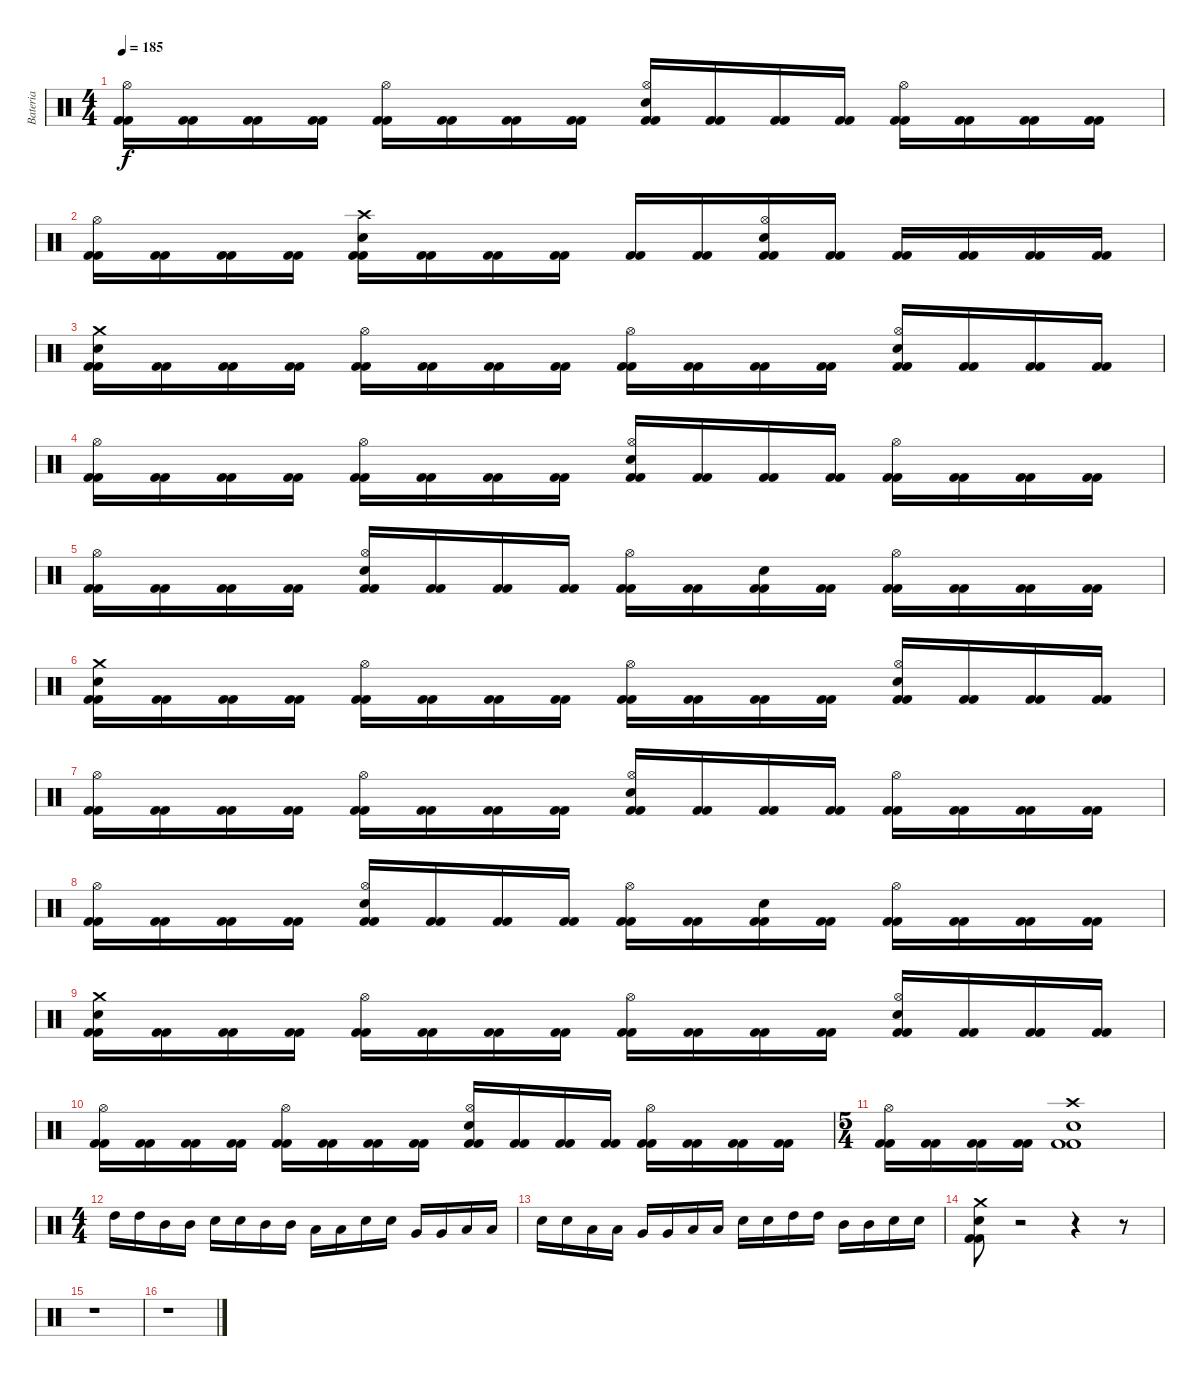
\track ("Bateria" "Bateria") {instrument percussion}
\staff {score}
\articulation defaults
\ts (4 4)
\tempo 185
\clef neutral
\ks c
("Kick (hit) 2" "Kick (hit) 2" "Hi-Hat (open)").16{dy f} ("Kick (hit) 2" "Kick (hit) 2").16 ("Kick (hit) 2" "Kick (hit) 2").16 ("Kick (hit) 2" "Kick (hit) 2").16 ("Kick (hit) 2" "Kick (hit) 2" "Hi-Hat (open)").16 ("Kick (hit) 2" "Kick (hit) 2").16 ("Kick (hit) 2" "Kick (hit) 2").16 ("Kick (hit) 2" "Kick (hit) 2").16 ("Kick (hit) 2" "Kick (hit) 2" "Electric Snare (hit)" "Hi-Hat (open)").16 ("Kick (hit) 2" "Kick (hit) 2").16 ("Kick (hit) 2" "Kick (hit) 2").16 ("Kick (hit) 2" "Kick (hit) 2").16 ("Kick (hit) 2" "Kick (hit) 2" "Hi-Hat (open)").16 ("Kick (hit) 2" "Kick (hit) 2").16 ("Kick (hit) 2" "Kick (hit) 2").16 ("Kick (hit) 2" "Kick (hit) 2").16 |
("Kick (hit) 2" "Kick (hit) 2" "Hi-Hat (open)").16 ("Kick (hit) 2" "Kick (hit) 2").16 ("Kick (hit) 2" "Kick (hit) 2").16 ("Kick (hit) 2" "Kick (hit) 2").16 ("Kick (hit) 2" "Kick (hit) 2" "Electric Snare (hit)" "Crash high (hit)").16 ("Kick (hit) 2" "Kick (hit) 2").16 ("Kick (hit) 2" "Kick (hit) 2").16 ("Kick (hit) 2" "Kick (hit) 2").16 ("Kick (hit) 2" "Kick (hit) 2").16 ("Kick (hit) 2" "Kick (hit) 2").16 ("Kick (hit) 2" "Kick (hit) 2" "Electric Snare (hit)" "Hi-Hat (open)").16 ("Kick (hit) 2" "Kick (hit) 2").16 ("Kick (hit) 2" "Kick (hit) 2").16 ("Kick (hit) 2" "Kick (hit) 2").16 ("Kick (hit) 2" "Kick (hit) 2").16 ("Kick (hit) 2" "Kick (hit) 2").16 |
("Kick (hit) 2" "Kick (hit) 2" "Electric Snare (hit)" "Crash medium (hit)").16 ("Kick (hit) 2" "Kick (hit) 2").16 ("Kick (hit) 2" "Kick (hit) 2").16 ("Kick (hit) 2" "Kick (hit) 2").16 ("Kick (hit) 2" "Kick (hit) 2" "Hi-Hat (open)").16 ("Kick (hit) 2" "Kick (hit) 2").16 ("Kick (hit) 2" "Kick (hit) 2").16 ("Kick (hit) 2" "Kick (hit) 2").16 ("Kick (hit) 2" "Kick (hit) 2" "Hi-Hat (open)").16 ("Kick (hit) 2" "Kick (hit) 2").16 ("Kick (hit) 2" "Kick (hit) 2").16 ("Kick (hit) 2" "Kick (hit) 2").16 ("Kick (hit) 2" "Kick (hit) 2" "Electric Snare (hit)" "Hi-Hat (open)").16 ("Kick (hit) 2" "Kick (hit) 2").16 ("Kick (hit) 2" "Kick (hit) 2").16 ("Kick (hit) 2" "Kick (hit) 2").16 |
("Kick (hit) 2" "Kick (hit) 2" "Hi-Hat (open)").16 ("Kick (hit) 2" "Kick (hit) 2").16 ("Kick (hit) 2" "Kick (hit) 2").16 ("Kick (hit) 2" "Kick (hit) 2").16 ("Kick (hit) 2" "Kick (hit) 2" "Hi-Hat (open)").16 ("Kick (hit) 2" "Kick (hit) 2").16 ("Kick (hit) 2" "Kick (hit) 2").16 ("Kick (hit) 2" "Kick (hit) 2").16 ("Kick (hit) 2" "Kick (hit) 2" "Electric Snare (hit)" "Hi-Hat (open)").16 ("Kick (hit) 2" "Kick (hit) 2").16 ("Kick (hit) 2" "Kick (hit) 2").16 ("Kick (hit) 2" "Kick (hit) 2").16 ("Kick (hit) 2" "Kick (hit) 2" "Hi-Hat (open)").16 ("Kick (hit) 2" "Kick (hit) 2").16 ("Kick (hit) 2" "Kick (hit) 2").16 ("Kick (hit) 2" "Kick (hit) 2").16 |
("Kick (hit) 2" "Kick (hit) 2" "Hi-Hat (open)").16 ("Kick (hit) 2" "Kick (hit) 2").16 ("Kick (hit) 2" "Kick (hit) 2").16 ("Kick (hit) 2" "Kick (hit) 2").16 ("Kick (hit) 2" "Kick (hit) 2" "Electric Snare (hit)" "Hi-Hat (open)").16 ("Kick (hit) 2" "Kick (hit) 2").16 ("Kick (hit) 2" "Kick (hit) 2").16 ("Kick (hit) 2" "Kick (hit) 2").16 ("Kick (hit) 2" "Kick (hit) 2" "Hi-Hat (open)").16 ("Kick (hit) 2" "Kick (hit) 2").16 ("Kick (hit) 2" "Kick (hit) 2" "Electric Snare (hit)").16 ("Kick (hit) 2" "Kick (hit) 2").16 ("Kick (hit) 2" "Kick (hit) 2" "Hi-Hat (open)").16 ("Kick (hit) 2" "Kick (hit) 2").16 ("Kick (hit) 2" "Kick (hit) 2").16 ("Kick (hit) 2" "Kick (hit) 2").16 |
("Kick (hit) 2" "Kick (hit) 2" "Electric Snare (hit)" "Crash medium (hit)").16 ("Kick (hit) 2" "Kick (hit) 2").16 ("Kick (hit) 2" "Kick (hit) 2").16 ("Kick (hit) 2" "Kick (hit) 2").16 ("Kick (hit) 2" "Kick (hit) 2" "Hi-Hat (open)").16 ("Kick (hit) 2" "Kick (hit) 2").16 ("Kick (hit) 2" "Kick (hit) 2").16 ("Kick (hit) 2" "Kick (hit) 2").16 ("Kick (hit) 2" "Kick (hit) 2" "Hi-Hat (open)").16 ("Kick (hit) 2" "Kick (hit) 2").16 ("Kick (hit) 2" "Kick (hit) 2").16 ("Kick (hit) 2" "Kick (hit) 2").16 ("Kick (hit) 2" "Kick (hit) 2" "Electric Snare (hit)" "Hi-Hat (open)").16 ("Kick (hit) 2" "Kick (hit) 2").16 ("Kick (hit) 2" "Kick (hit) 2").16 ("Kick (hit) 2" "Kick (hit) 2").16 |
("Kick (hit) 2" "Kick (hit) 2" "Hi-Hat (open)").16 ("Kick (hit) 2" "Kick (hit) 2").16 ("Kick (hit) 2" "Kick (hit) 2").16 ("Kick (hit) 2" "Kick (hit) 2").16 ("Kick (hit) 2" "Kick (hit) 2" "Hi-Hat (open)").16 ("Kick (hit) 2" "Kick (hit) 2").16 ("Kick (hit) 2" "Kick (hit) 2").16 ("Kick (hit) 2" "Kick (hit) 2").16 ("Kick (hit) 2" "Kick (hit) 2" "Electric Snare (hit)" "Hi-Hat (open)").16 ("Kick (hit) 2" "Kick (hit) 2").16 ("Kick (hit) 2" "Kick (hit) 2").16 ("Kick (hit) 2" "Kick (hit) 2").16 ("Kick (hit) 2" "Kick (hit) 2" "Hi-Hat (open)").16 ("Kick (hit) 2" "Kick (hit) 2").16 ("Kick (hit) 2" "Kick (hit) 2").16 ("Kick (hit) 2" "Kick (hit) 2").16 |
("Kick (hit) 2" "Kick (hit) 2" "Hi-Hat (open)").16 ("Kick (hit) 2" "Kick (hit) 2").16 ("Kick (hit) 2" "Kick (hit) 2").16 ("Kick (hit) 2" "Kick (hit) 2").16 ("Kick (hit) 2" "Kick (hit) 2" "Electric Snare (hit)" "Hi-Hat (open)").16 ("Kick (hit) 2" "Kick (hit) 2").16 ("Kick (hit) 2" "Kick (hit) 2").16 ("Kick (hit) 2" "Kick (hit) 2").16 ("Kick (hit) 2" "Kick (hit) 2" "Hi-Hat (open)").16 ("Kick (hit) 2" "Kick (hit) 2").16 ("Kick (hit) 2" "Kick (hit) 2" "Electric Snare (hit)").16 ("Kick (hit) 2" "Kick (hit) 2").16 ("Kick (hit) 2" "Kick (hit) 2" "Hi-Hat (open)").16 ("Kick (hit) 2" "Kick (hit) 2").16 ("Kick (hit) 2" "Kick (hit) 2").16 ("Kick (hit) 2" "Kick (hit) 2").16 |
("Kick (hit) 2" "Kick (hit) 2" "Electric Snare (hit)" "Crash medium (hit)").16 ("Kick (hit) 2" "Kick (hit) 2").16 ("Kick (hit) 2" "Kick (hit) 2").16 ("Kick (hit) 2" "Kick (hit) 2").16 ("Kick (hit) 2" "Kick (hit) 2" "Hi-Hat (open)").16 ("Kick (hit) 2" "Kick (hit) 2").16 ("Kick (hit) 2" "Kick (hit) 2").16 ("Kick (hit) 2" "Kick (hit) 2").16 ("Kick (hit) 2" "Kick (hit) 2" "Hi-Hat (open)").16 ("Kick (hit) 2" "Kick (hit) 2").16 ("Kick (hit) 2" "Kick (hit) 2").16 ("Kick (hit) 2" "Kick (hit) 2").16 ("Kick (hit) 2" "Kick (hit) 2" "Electric Snare (hit)" "Hi-Hat (open)").16 ("Kick (hit) 2" "Kick (hit) 2").16 ("Kick (hit) 2" "Kick (hit) 2").16 ("Kick (hit) 2" "Kick (hit) 2").16 |
("Kick (hit) 2" "Kick (hit) 2" "Hi-Hat (open)").16 ("Kick (hit) 2" "Kick (hit) 2").16 ("Kick (hit) 2" "Kick (hit) 2").16 ("Kick (hit) 2" "Kick (hit) 2").16 ("Kick (hit) 2" "Kick (hit) 2" "Hi-Hat (open)").16 ("Kick (hit) 2" "Kick (hit) 2").16 ("Kick (hit) 2" "Kick (hit) 2").16 ("Kick (hit) 2" "Kick (hit) 2").16 ("Kick (hit) 2" "Kick (hit) 2" "Electric Snare (hit)" "Hi-Hat (open)").16 ("Kick (hit) 2" "Kick (hit) 2").16 ("Kick (hit) 2" "Kick (hit) 2").16 ("Kick (hit) 2" "Kick (hit) 2").16 ("Kick (hit) 2" "Kick (hit) 2" "Hi-Hat (open)").16 ("Kick (hit) 2" "Kick (hit) 2").16 ("Kick (hit) 2" "Kick (hit) 2").16 ("Kick (hit) 2" "Kick (hit) 2").16 |
\ts (5 4)
("Kick (hit) 2" "Kick (hit) 2" "Hi-Hat (open)").16 ("Kick (hit) 2" "Kick (hit) 2").16 ("Kick (hit) 2" "Kick (hit) 2").16 ("Kick (hit) 2" "Kick (hit) 2").16 ("Kick (hit) 2" "Kick (hit) 2" "Electric Snare (hit)" "Crash high (hit)").1 |
\ts (4 4)
"High Tom (hit)".16 "High Tom (hit)".16 "Mid Tom (hit)".16 "Mid Tom (hit)".16 "Electric Snare (hit)".16 "Electric Snare (hit)".16 "Mid Tom (hit)".16 "Mid Tom (hit)".16 "Low Tom (hit)".16 "Low Tom (hit)".16 "Electric Snare (hit)".16 "Electric Snare (hit)".16 "Very Low Tom (hit)".16 "Very Low Tom (hit)".16 "Low Floor Tom (hit)".16 "Low Floor Tom (hit)".16 |
"Electric Snare (hit)".16 "Electric Snare (hit)".16 "Low Tom (hit)".16 "Low Tom (hit)".16 "Very Low Tom (hit)".16 "Very Low Tom (hit)".16 "Low Floor Tom (hit)".16 "Low Floor Tom (hit)".16 "Electric Snare (hit)".16 "Electric Snare (hit)".16 "High Tom (hit)".16 "High Tom (hit)".16 "Mid Tom (hit)".16 "Mid Tom (hit)".16 "Electric Snare (hit)".16 "Electric Snare (hit)".16 |
("Kick (hit) 2" "Kick (hit) 2" "Electric Snare (hit)" "Crash medium (hit)").8 r.2 r.4 r.8 |
r.1 |
r.1
